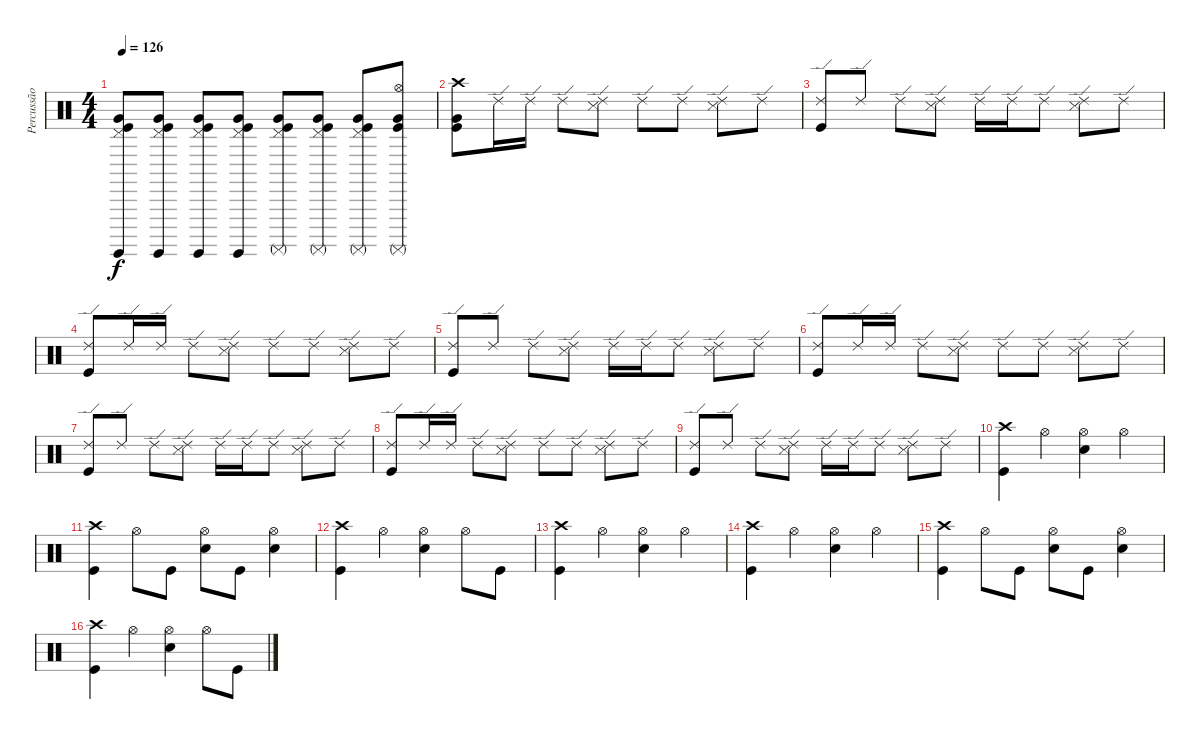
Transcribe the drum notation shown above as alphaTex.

\track ("Percussão" "Percussão") {instrument percussion}
\staff {score}
\articulation defaults
\ts (4 4)
\tempo 126
\clef neutral
\ks c
("Pedal Hi-Hat (hit)" "Surdo (hit)" "Very Low Tom (hit)" "Kick (hit)").8{dy f} ("Pedal Hi-Hat (hit)" "Surdo (hit)" "Very Low Tom (hit)" "Kick (hit)").8 ("Pedal Hi-Hat (hit)" "Surdo (hit)" "Very Low Tom (hit)" "Kick (hit)").8 ("Pedal Hi-Hat (hit)" "Surdo (hit)" "Very Low Tom (hit)" "Kick (hit)").8 ("Pedal Hi-Hat (hit)" "Surdo (mute)" "Very Low Tom (hit)" "Kick (hit)").8 ("Pedal Hi-Hat (hit)" "Surdo (mute)" "Very Low Tom (hit)" "Kick (hit)").8 ("Pedal Hi-Hat (hit)" "Surdo (mute)" "Very Low Tom (hit)" "Kick (hit)").8 ("Hi-Hat (open)" "Surdo (mute)" "Very Low Tom (hit)" "Kick (hit)").8 |
("Crash high (hit)" "Very Low Tom (hit)" "Kick (hit)").8 "Ride (edge) 2".16 "Ride (edge) 2".16 "Ride (edge) 2".8 ("Ride (edge) 2" "Snare (side stick) 3").8 "Ride (edge) 2".8 "Ride (edge) 2".8 ("Ride (edge) 2" "Snare (side stick) 3").8 "Ride (edge) 2".8 |
("Ride (edge) 2" "Kick (hit)").8 "Ride (edge) 2".8 "Ride (edge) 2".8 ("Ride (edge) 2" "Snare (side stick) 3").8 "Ride (edge) 2".16 "Ride (edge) 2".16 "Ride (edge) 2".8 ("Ride (edge) 2" "Snare (side stick) 3").8 "Ride (edge) 2".8 |
("Ride (edge) 2" "Kick (hit)").8 "Ride (edge) 2".16 "Ride (edge) 2".16 "Ride (edge) 2".8 ("Ride (edge) 2" "Snare (side stick) 3").8 "Ride (edge) 2".8 "Ride (edge) 2".8 ("Ride (edge) 2" "Snare (side stick) 3").8 "Ride (edge) 2".8 |
("Ride (edge) 2" "Kick (hit)").8 "Ride (edge) 2".8 "Ride (edge) 2".8 ("Ride (edge) 2" "Snare (side stick) 3").8 "Ride (edge) 2".16 "Ride (edge) 2".16 "Ride (edge) 2".8 ("Ride (edge) 2" "Snare (side stick) 3").8 "Ride (edge) 2".8 |
("Ride (edge) 2" "Kick (hit)").8 "Ride (edge) 2".16 "Ride (edge) 2".16 "Ride (edge) 2".8 ("Ride (edge) 2" "Snare (side stick) 3").8 "Ride (edge) 2".8 "Ride (edge) 2".8 ("Ride (edge) 2" "Snare (side stick) 3").8 "Ride (edge) 2".8 |
("Ride (edge) 2" "Kick (hit)").8 "Ride (edge) 2".8 "Ride (edge) 2".8 ("Ride (edge) 2" "Snare (side stick) 3").8 "Ride (edge) 2".16 "Ride (edge) 2".16 "Ride (edge) 2".8 ("Ride (edge) 2" "Snare (side stick) 3").8 "Ride (edge) 2".8 |
("Ride (edge) 2" "Kick (hit)").8 "Ride (edge) 2".16 "Ride (edge) 2".16 "Ride (edge) 2".8 ("Ride (edge) 2" "Snare (side stick) 3").8 "Ride (edge) 2".8 "Ride (edge) 2".8 ("Ride (edge) 2" "Snare (side stick) 3").8 "Ride (edge) 2".8 |
("Ride (edge) 2" "Kick (hit)").8 "Ride (edge) 2".8 "Ride (edge) 2".8 ("Ride (edge) 2" "Snare (side stick) 3").8 "Ride (edge) 2".16 "Ride (edge) 2".16 "Ride (edge) 2".8 ("Ride (edge) 2" "Snare (side stick) 3").8 "Ride (edge) 2".8 |
("Crash high (hit)" "Kick (hit)").4 "Hi-Hat (open)".4 ("Hi-Hat (open)" "Electric Snare (hit)").4 "Hi-Hat (open)".4 |
("Crash high (hit)" "Kick (hit)").4 "Hi-Hat (open)".8 "Kick (hit)".8 ("Hi-Hat (open)" "Electric Snare (hit)").8 "Kick (hit)".8 ("Hi-Hat (open)" "Electric Snare (hit)").4 |
("Crash high (hit)" "Kick (hit)").4 "Hi-Hat (open)".4 ("Hi-Hat (open)" "Electric Snare (hit)").4 "Hi-Hat (open)".8 "Kick (hit)".8 |
("Crash high (hit)" "Kick (hit)").4 "Hi-Hat (open)".4 ("Hi-Hat (open)" "Electric Snare (hit)").4 "Hi-Hat (open)".4 |
("Crash high (hit)" "Kick (hit)").4 "Hi-Hat (open)".4 ("Hi-Hat (open)" "Electric Snare (hit)").4 "Hi-Hat (open)".4 |
("Crash high (hit)" "Kick (hit)").4 "Hi-Hat (open)".8 "Kick (hit)".8 ("Hi-Hat (open)" "Electric Snare (hit)").8 "Kick (hit)".8 ("Hi-Hat (open)" "Electric Snare (hit)").4 |
("Crash high (hit)" "Kick (hit)").4 "Hi-Hat (open)".4 ("Hi-Hat (open)" "Electric Snare (hit)").4 "Hi-Hat (open)".8 "Kick (hit)".8
